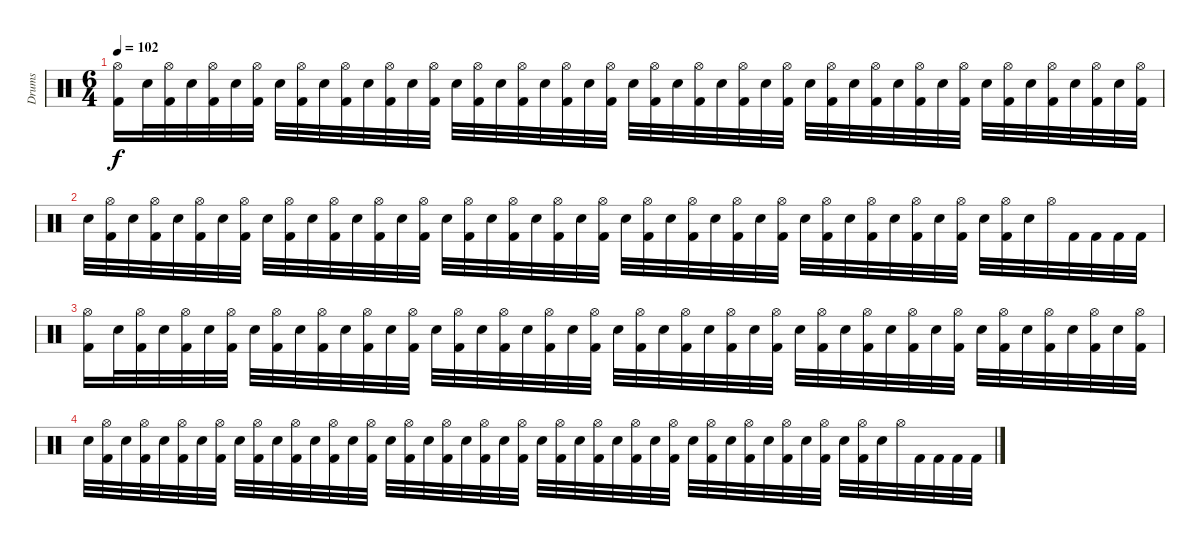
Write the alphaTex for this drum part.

\track ("Drums" "Drums") {instrument percussion}
\staff {score}
\articulation defaults
\ts (6 4)
\tempo 102
\clef neutral
\ks c
("Hi-Hat (open)" "Kick (hit) 2").16{dy f} "Electric Snare (hit)".32 ("Hi-Hat (open)" "Kick (hit) 2").32 "Electric Snare (hit)".32 ("Hi-Hat (open)" "Kick (hit) 2").32 "Electric Snare (hit)".32 ("Hi-Hat (open)" "Kick (hit) 2").32 "Electric Snare (hit)".32 ("Hi-Hat (open)" "Kick (hit) 2").32 "Electric Snare (hit)".32 ("Hi-Hat (open)" "Kick (hit) 2").32 "Electric Snare (hit)".32 ("Hi-Hat (open)" "Kick (hit) 2").32 "Electric Snare (hit)".32 ("Hi-Hat (open)" "Kick (hit) 2").32 "Electric Snare (hit)".32 ("Hi-Hat (open)" "Kick (hit) 2").32 "Electric Snare (hit)".32 ("Hi-Hat (open)" "Kick (hit) 2").32 "Electric Snare (hit)".32 ("Hi-Hat (open)" "Kick (hit) 2").32 "Electric Snare (hit)".32 ("Hi-Hat (open)" "Kick (hit) 2").32 "Electric Snare (hit)".32 ("Hi-Hat (open)" "Kick (hit) 2").32 "Electric Snare (hit)".32 ("Hi-Hat (open)" "Kick (hit) 2").32 "Electric Snare (hit)".32 ("Hi-Hat (open)" "Kick (hit) 2").32 "Electric Snare (hit)".32 ("Hi-Hat (open)" "Kick (hit) 2").32 "Electric Snare (hit)".32 ("Hi-Hat (open)" "Kick (hit) 2").32 "Electric Snare (hit)".32 ("Hi-Hat (open)" "Kick (hit) 2").32 "Electric Snare (hit)".32 ("Hi-Hat (open)" "Kick (hit) 2").32 "Electric Snare (hit)".32 ("Hi-Hat (open)" "Kick (hit) 2").32 "Electric Snare (hit)".32 ("Hi-Hat (open)" "Kick (hit) 2").32 "Electric Snare (hit)".32 ("Hi-Hat (open)" "Kick (hit) 2").32 "Electric Snare (hit)".32 ("Hi-Hat (open)" "Kick (hit) 2").32 "Electric Snare (hit)".32 ("Hi-Hat (open)" "Kick (hit) 2").32 |
"Electric Snare (hit)".32 ("Hi-Hat (open)" "Kick (hit) 2").32 "Electric Snare (hit)".32 ("Hi-Hat (open)" "Kick (hit) 2").32 "Electric Snare (hit)".32 ("Hi-Hat (open)" "Kick (hit) 2").32 "Electric Snare (hit)".32 ("Hi-Hat (open)" "Kick (hit) 2").32 "Electric Snare (hit)".32 ("Hi-Hat (open)" "Kick (hit) 2").32 "Electric Snare (hit)".32 ("Hi-Hat (open)" "Kick (hit) 2").32 "Electric Snare (hit)".32 ("Hi-Hat (open)" "Kick (hit) 2").32 "Electric Snare (hit)".32 ("Hi-Hat (open)" "Kick (hit) 2").32 "Electric Snare (hit)".32 ("Hi-Hat (open)" "Kick (hit) 2").32 "Electric Snare (hit)".32 ("Hi-Hat (open)" "Kick (hit) 2").32 "Electric Snare (hit)".32 ("Hi-Hat (open)" "Kick (hit) 2").32 "Electric Snare (hit)".32 ("Hi-Hat (open)" "Kick (hit) 2").32 "Electric Snare (hit)".32 ("Hi-Hat (open)" "Kick (hit) 2").32 "Electric Snare (hit)".32 ("Hi-Hat (open)" "Kick (hit) 2").32 "Electric Snare (hit)".32 ("Hi-Hat (open)" "Kick (hit) 2").32 "Electric Snare (hit)".32 ("Hi-Hat (open)" "Kick (hit) 2").32 "Electric Snare (hit)".32 ("Hi-Hat (open)" "Kick (hit) 2").32 "Electric Snare (hit)".32 ("Hi-Hat (open)" "Kick (hit) 2").32 "Electric Snare (hit)".32 ("Hi-Hat (open)" "Kick (hit) 2").32 "Electric Snare (hit)".32 ("Hi-Hat (open)" "Kick (hit) 2").32 "Electric Snare (hit)".32 ("Hi-Hat (open)" "Kick (hit) 2").32 "Electric Snare (hit)".32 "Hi-Hat (open)".32 "Kick (hit) 2".32 "Kick (hit) 2".32 "Kick (hit) 2".32 "Kick (hit) 2".32 |
("Hi-Hat (open)" "Kick (hit) 2").16 "Electric Snare (hit)".32 ("Hi-Hat (open)" "Kick (hit) 2").32 "Electric Snare (hit)".32 ("Hi-Hat (open)" "Kick (hit) 2").32 "Electric Snare (hit)".32 ("Hi-Hat (open)" "Kick (hit) 2").32 "Electric Snare (hit)".32 ("Hi-Hat (open)" "Kick (hit) 2").32 "Electric Snare (hit)".32 ("Hi-Hat (open)" "Kick (hit) 2").32 "Electric Snare (hit)".32 ("Hi-Hat (open)" "Kick (hit) 2").32 "Electric Snare (hit)".32 ("Hi-Hat (open)" "Kick (hit) 2").32 "Electric Snare (hit)".32 ("Hi-Hat (open)" "Kick (hit) 2").32 "Electric Snare (hit)".32 ("Hi-Hat (open)" "Kick (hit) 2").32 "Electric Snare (hit)".32 ("Hi-Hat (open)" "Kick (hit) 2").32 "Electric Snare (hit)".32 ("Hi-Hat (open)" "Kick (hit) 2").32 "Electric Snare (hit)".32 ("Hi-Hat (open)" "Kick (hit) 2").32 "Electric Snare (hit)".32 ("Hi-Hat (open)" "Kick (hit) 2").32 "Electric Snare (hit)".32 ("Hi-Hat (open)" "Kick (hit) 2").32 "Electric Snare (hit)".32 ("Hi-Hat (open)" "Kick (hit) 2").32 "Electric Snare (hit)".32 ("Hi-Hat (open)" "Kick (hit) 2").32 "Electric Snare (hit)".32 ("Hi-Hat (open)" "Kick (hit) 2").32 "Electric Snare (hit)".32 ("Hi-Hat (open)" "Kick (hit) 2").32 "Electric Snare (hit)".32 ("Hi-Hat (open)" "Kick (hit) 2").32 "Electric Snare (hit)".32 ("Hi-Hat (open)" "Kick (hit) 2").32 "Electric Snare (hit)".32 ("Hi-Hat (open)" "Kick (hit) 2").32 "Electric Snare (hit)".32 ("Hi-Hat (open)" "Kick (hit) 2").32 "Electric Snare (hit)".32 ("Hi-Hat (open)" "Kick (hit) 2").32 |
"Electric Snare (hit)".32 ("Hi-Hat (open)" "Kick (hit) 2").32 "Electric Snare (hit)".32 ("Hi-Hat (open)" "Kick (hit) 2").32 "Electric Snare (hit)".32 ("Hi-Hat (open)" "Kick (hit) 2").32 "Electric Snare (hit)".32 ("Hi-Hat (open)" "Kick (hit) 2").32 "Electric Snare (hit)".32 ("Hi-Hat (open)" "Kick (hit) 2").32 "Electric Snare (hit)".32 ("Hi-Hat (open)" "Kick (hit) 2").32 "Electric Snare (hit)".32 ("Hi-Hat (open)" "Kick (hit) 2").32 "Electric Snare (hit)".32 ("Hi-Hat (open)" "Kick (hit) 2").32 "Electric Snare (hit)".32 ("Hi-Hat (open)" "Kick (hit) 2").32 "Electric Snare (hit)".32 ("Hi-Hat (open)" "Kick (hit) 2").32 "Electric Snare (hit)".32 ("Hi-Hat (open)" "Kick (hit) 2").32 "Electric Snare (hit)".32 ("Hi-Hat (open)" "Kick (hit) 2").32 "Electric Snare (hit)".32 ("Hi-Hat (open)" "Kick (hit) 2").32 "Electric Snare (hit)".32 ("Hi-Hat (open)" "Kick (hit) 2").32 "Electric Snare (hit)".32 ("Hi-Hat (open)" "Kick (hit) 2").32 "Electric Snare (hit)".32 ("Hi-Hat (open)" "Kick (hit) 2").32 "Electric Snare (hit)".32 ("Hi-Hat (open)" "Kick (hit) 2").32 "Electric Snare (hit)".32 ("Hi-Hat (open)" "Kick (hit) 2").32 "Electric Snare (hit)".32 ("Hi-Hat (open)" "Kick (hit) 2").32 "Electric Snare (hit)".32 ("Hi-Hat (open)" "Kick (hit) 2").32 "Electric Snare (hit)".32 ("Hi-Hat (open)" "Kick (hit) 2").32 "Electric Snare (hit)".32 "Hi-Hat (open)".32 "Kick (hit) 2".32 "Kick (hit) 2".32 "Kick (hit) 2".32 "Kick (hit) 2".32
